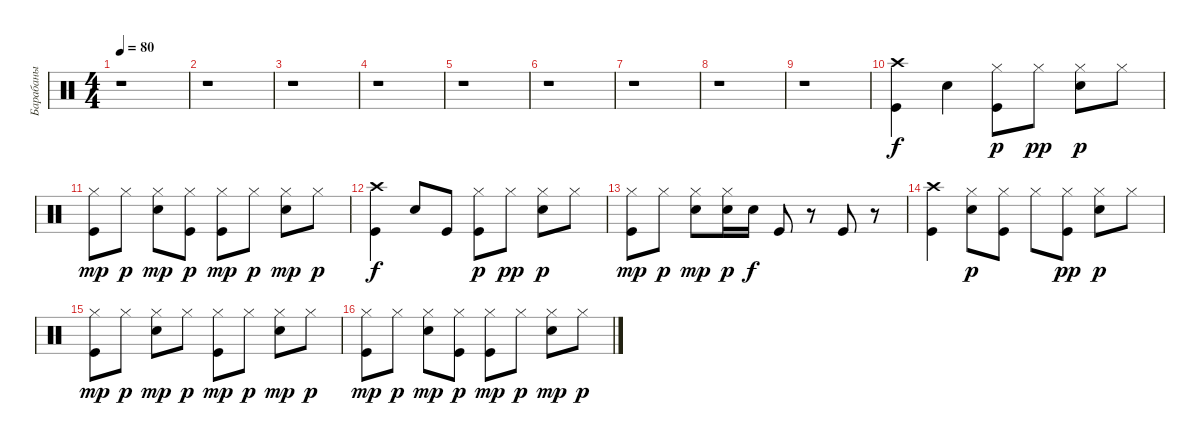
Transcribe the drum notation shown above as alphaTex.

\track ("Барабаны" "Барабаны") {instrument percussion}
\staff {score}
\articulation defaults
\ts (4 4)
\tempo 80
\clef neutral
\ks c
r.1{dy f} |
r.1 |
r.1 |
r.1 |
r.1 |
r.1 |
r.1 |
r.1 |
r.1 |
("Crash high (hit)" "Kick (hit)").4 "Snare (hit) 2".4 ("Kick (hit)" "Hi-Hat (closed)").8{dy p} "Hi-Hat (closed)".8{dy pp} ("Hi-Hat (closed)" "Snare (hit) 2").8{dy p} "Hi-Hat (closed)".8 |
("Kick (hit)" "Hi-Hat (closed)").8{dy mp} "Hi-Hat (closed)".8{dy p} ("Hi-Hat (closed)" "Snare (hit) 2").8{dy mp} ("Kick (hit)" "Hi-Hat (closed)").8{dy p} ("Hi-Hat (closed)" "Kick (hit)").8{dy mp} "Hi-Hat (closed)".8{dy p} ("Snare (hit) 2" "Hi-Hat (closed)").8{dy mp} "Hi-Hat (closed)".8{dy p} |
("Kick (hit)" "Crash high (hit)").4{dy f} "Snare (hit) 2".8 "Kick (hit)".8 ("Kick (hit)" "Hi-Hat (closed)").8{dy p} "Hi-Hat (closed)".8{dy pp} ("Hi-Hat (closed)" "Snare (hit) 2").8{dy p} "Hi-Hat (closed)".8 |
("Kick (hit)" "Hi-Hat (closed)").8{dy mp} "Hi-Hat (closed)".8{dy p} ("Snare (hit) 2" "Hi-Hat (closed)").8{dy mp} ("Snare (hit) 2" "Hi-Hat (closed)").16{dy p} "Snare (hit) 2".16{dy f} "Kick (hit)".8 r.8 "Kick (hit)".8 r.8 |
("Kick (hit)" "Crash high (hit)").4 ("Snare (hit) 2" "Hi-Hat (closed)").8{dy p} ("Kick (hit)" "Hi-Hat (closed)").8 "Hi-Hat (closed)".8 ("Kick (hit)" "Hi-Hat (closed)").8{dy pp} ("Snare (hit) 2" "Hi-Hat (closed)").8{dy p} "Hi-Hat (closed)".8 |
("Kick (hit)" "Hi-Hat (closed)").8{dy mp} "Hi-Hat (closed)".8{dy p} ("Snare (hit) 2" "Hi-Hat (closed)").8{dy mp} "Hi-Hat (closed)".8{dy p} ("Kick (hit)" "Hi-Hat (closed)").8{dy mp} "Hi-Hat (closed)".8{dy p} ("Snare (hit) 2" "Hi-Hat (closed)").8{dy mp} "Hi-Hat (closed)".8{dy p} |
("Kick (hit)" "Hi-Hat (closed)").8{dy mp} "Hi-Hat (closed)".8{dy p} ("Snare (hit) 2" "Hi-Hat (closed)").8{dy mp} ("Kick (hit)" "Hi-Hat (closed)").8{dy p} ("Kick (hit)" "Hi-Hat (closed)").8{dy mp} "Hi-Hat (closed)".8{dy p} ("Snare (hit) 2" "Hi-Hat (closed)").8{dy mp} "Hi-Hat (closed)".8{dy p}
